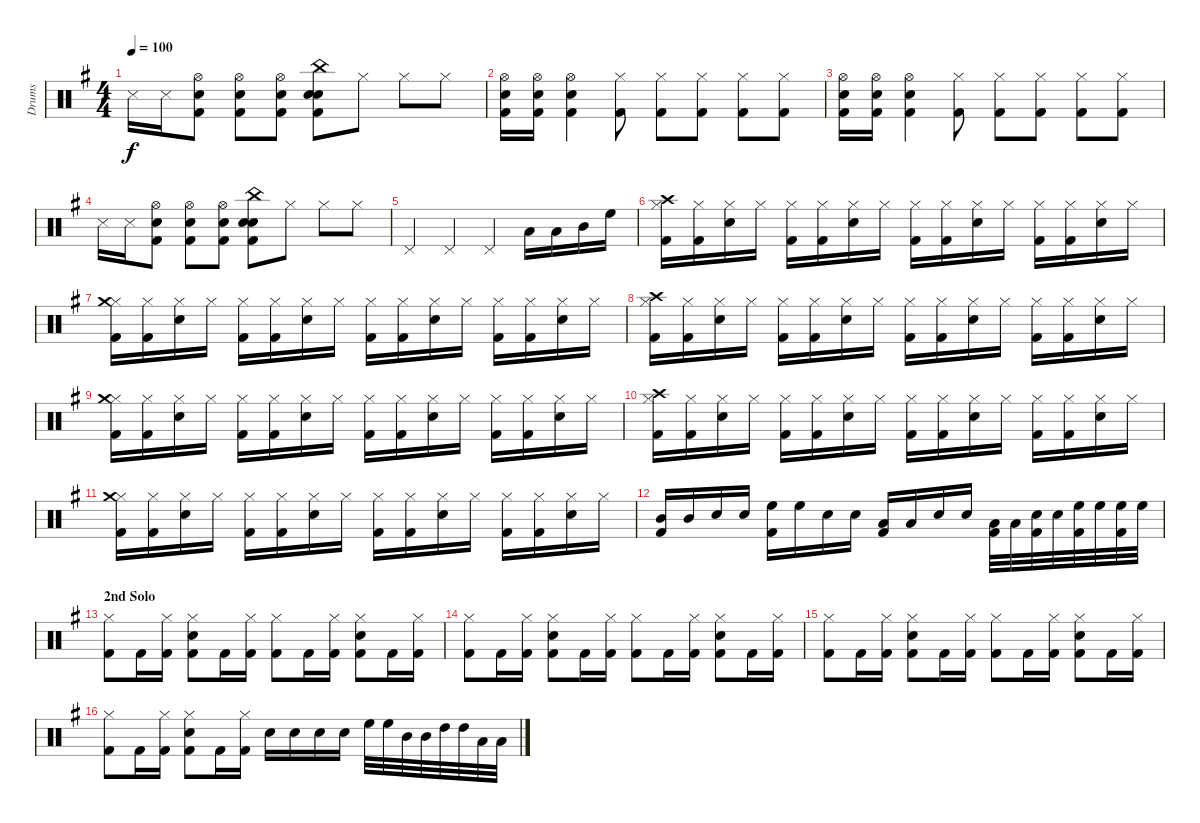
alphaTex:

\track ("Drums" "Drums") {instrument percussion}
\staff {score}
\articulation defaults
\ts (4 4)
\tempo 100
\clef neutral
\ks eminor "Snare (side stick) 3".16{dy f} "Snare (side stick) 3".16
("Hi-Hat (open)" "Snare (hit) 2" "Kick (hit) 2").8 ("Hi-Hat (open)" "Snare (hit) 2" "Kick (hit) 2").8 ("Hi-Hat (open)" "Snare (hit) 2" "Kick (hit) 2").8 ("China (hit)" "Hand Clap (hit)" "Snare (hit) 2" "Kick (hit) 2").8 "Hi-Hat (closed)".8 "Hi-Hat (closed)".8 "Hi-Hat (closed)".8 |
("Snare (hit) 2" "Hi-Hat (open)" "Kick (hit) 2").16 ("Snare (hit) 2" "Hi-Hat (open)" "Kick (hit) 2").16 ("Snare (hit) 2" "Hi-Hat (open)" "Kick (hit) 2").4 ("Hi-Hat (closed)" "Kick (hit) 2").8 ("Hi-Hat (closed)" "Kick (hit) 2").8 ("Hi-Hat (closed)" "Kick (hit) 2").8 ("Hi-Hat (closed)" "Kick (hit) 2").8 ("Hi-Hat (closed)" "Kick (hit) 2").8 |
("Snare (hit) 2" "Hi-Hat (open)" "Kick (hit) 2").16 ("Snare (hit) 2" "Hi-Hat (open)" "Kick (hit) 2").16 ("Snare (hit) 2" "Hi-Hat (open)" "Kick (hit) 2").4 ("Hi-Hat (closed)" "Kick (hit) 2").8 ("Hi-Hat (closed)" "Kick (hit) 2").8 ("Hi-Hat (closed)" "Kick (hit) 2").8 ("Hi-Hat (closed)" "Kick (hit) 2").8 ("Hi-Hat (closed)" "Kick (hit) 2").8 |
"Snare (side stick) 3".16 "Snare (side stick) 3".16 ("Hi-Hat (open)" "Snare (hit) 2" "Kick (hit) 2").8 ("Hi-Hat (open)" "Snare (hit) 2" "Kick (hit) 2").8 ("Hi-Hat (open)" "Snare (hit) 2" "Kick (hit) 2").8 ("China (hit)" "Hand Clap (hit)" "Snare (hit) 2" "Kick (hit) 2").8 "Hi-Hat (closed)".8 "Hi-Hat (closed)".8 "Hi-Hat (closed)".8 |
"Pedal Hi-Hat (hit)".4 "Pedal Hi-Hat (hit)".4 "Pedal Hi-Hat (hit)".4 "Low Floor Tom (hit)".16 "Low Tom (hit)".16 "Mid Tom (hit)".16 "High Floor Tom (hit)".16 |
("Hi-Hat (closed)" "Crash high (hit)" "Kick (hit) 2").16 ("Hi-Hat (closed)" "Kick (hit) 2").16 ("Hi-Hat (closed)" "Snare (hit) 2").16 "Hi-Hat (closed)".16 ("Hi-Hat (closed)" "Kick (hit) 2").16 ("Hi-Hat (closed)" "Kick (hit) 2").16 ("Hi-Hat (closed)" "Snare (hit) 2").16 "Hi-Hat (closed)".16 ("Hi-Hat (closed)" "Kick (hit) 2").16 ("Hi-Hat (closed)" "Kick (hit) 2").16 ("Hi-Hat (closed)" "Snare (hit) 2").16 "Hi-Hat (closed)".16 ("Hi-Hat (closed)" "Kick (hit) 2").16 ("Hi-Hat (closed)" "Kick (hit) 2").16 ("Hi-Hat (closed)" "Snare (hit) 2").16 "Hi-Hat (closed)".16 |
("Hi-Hat (closed)" "Crash medium (hit)" "Kick (hit) 2").16 ("Hi-Hat (closed)" "Kick (hit) 2").16 ("Hi-Hat (closed)" "Snare (hit) 2").16 "Hi-Hat (closed)".16 ("Hi-Hat (closed)" "Kick (hit) 2").16 ("Hi-Hat (closed)" "Kick (hit) 2").16 ("Hi-Hat (closed)" "Snare (hit) 2").16 "Hi-Hat (closed)".16 ("Hi-Hat (closed)" "Kick (hit) 2").16 ("Hi-Hat (closed)" "Kick (hit) 2").16 ("Hi-Hat (closed)" "Snare (hit) 2").16 "Hi-Hat (closed)".16 ("Hi-Hat (closed)" "Kick (hit) 2").16 ("Hi-Hat (closed)" "Kick (hit) 2").16 ("Hi-Hat (closed)" "Snare (hit) 2").16 "Hi-Hat (closed)".16 |
("Hi-Hat (closed)" "Crash high (hit)" "Kick (hit) 2").16 ("Hi-Hat (closed)" "Kick (hit) 2").16 ("Hi-Hat (closed)" "Snare (hit) 2").16 "Hi-Hat (closed)".16 ("Hi-Hat (closed)" "Kick (hit) 2").16 ("Hi-Hat (closed)" "Kick (hit) 2").16 ("Hi-Hat (closed)" "Snare (hit) 2").16 "Hi-Hat (closed)".16 ("Hi-Hat (closed)" "Kick (hit) 2").16 ("Hi-Hat (closed)" "Kick (hit) 2").16 ("Hi-Hat (closed)" "Snare (hit) 2").16 "Hi-Hat (closed)".16 ("Hi-Hat (closed)" "Kick (hit) 2").16 ("Hi-Hat (closed)" "Kick (hit) 2").16 ("Hi-Hat (closed)" "Snare (hit) 2").16 "Hi-Hat (closed)".16 |
("Hi-Hat (closed)" "Crash medium (hit)" "Kick (hit) 2").16 ("Hi-Hat (closed)" "Kick (hit) 2").16 ("Hi-Hat (closed)" "Snare (hit) 2").16 "Hi-Hat (closed)".16 ("Hi-Hat (closed)" "Kick (hit) 2").16 ("Hi-Hat (closed)" "Kick (hit) 2").16 ("Hi-Hat (closed)" "Snare (hit) 2").16 "Hi-Hat (closed)".16 ("Hi-Hat (closed)" "Kick (hit) 2").16 ("Hi-Hat (closed)" "Kick (hit) 2").16 ("Hi-Hat (closed)" "Snare (hit) 2").16 "Hi-Hat (closed)".16 ("Hi-Hat (closed)" "Kick (hit) 2").16 ("Hi-Hat (closed)" "Kick (hit) 2").16 ("Hi-Hat (closed)" "Snare (hit) 2").16 "Hi-Hat (closed)".16 |
("Hi-Hat (closed)" "Crash high (hit)" "Kick (hit) 2").16 ("Hi-Hat (closed)" "Kick (hit) 2").16 ("Hi-Hat (closed)" "Snare (hit) 2").16 "Hi-Hat (closed)".16 ("Hi-Hat (closed)" "Kick (hit) 2").16 ("Hi-Hat (closed)" "Kick (hit) 2").16 ("Hi-Hat (closed)" "Snare (hit) 2").16 "Hi-Hat (closed)".16 ("Hi-Hat (closed)" "Kick (hit) 2").16 ("Hi-Hat (closed)" "Kick (hit) 2").16 ("Hi-Hat (closed)" "Snare (hit) 2").16 "Hi-Hat (closed)".16 ("Hi-Hat (closed)" "Kick (hit) 2").16 ("Hi-Hat (closed)" "Kick (hit) 2").16 ("Hi-Hat (closed)" "Snare (hit) 2").16 "Hi-Hat (closed)".16 |
("Hi-Hat (closed)" "Crash medium (hit)" "Kick (hit) 2").16 ("Hi-Hat (closed)" "Kick (hit) 2").16 ("Hi-Hat (closed)" "Snare (hit) 2").16 "Hi-Hat (closed)".16 ("Hi-Hat (closed)" "Kick (hit) 2").16 ("Hi-Hat (closed)" "Kick (hit) 2").16 ("Hi-Hat (closed)" "Snare (hit) 2").16 "Hi-Hat (closed)".16 ("Hi-Hat (closed)" "Kick (hit) 2").16 ("Hi-Hat (closed)" "Kick (hit) 2").16 ("Hi-Hat (closed)" "Snare (hit) 2").16 "Hi-Hat (closed)".16 ("Hi-Hat (closed)" "Kick (hit) 2").16 ("Hi-Hat (closed)" "Kick (hit) 2").16 ("Hi-Hat (closed)" "Snare (hit) 2").16 "Hi-Hat (closed)".16 |
("Mid Tom (hit)" "Kick (hit) 2").16 "Mid Tom (hit)".16 "Snare (hit) 2".16 "Snare (hit) 2".16 ("High Floor Tom (hit)" "Kick (hit) 2").16 "High Floor Tom (hit)".16 "Snare (hit) 2".16 "Snare (hit) 2".16 ("Low Tom (hit)" "Kick (hit) 2").16 "Low Tom (hit)".16 "Snare (hit) 2".16 "Snare (hit) 2".16 ("Low Floor Tom (hit)" "Kick (hit) 2").32 "Low Floor Tom (hit)".32 ("Snare (hit) 2" "Kick (hit) 2").32 "Snare (hit) 2".32 ("High Floor Tom (hit)" "Kick (hit) 2").32 "High Floor Tom (hit)".32 ("High Floor Tom (hit)" "Kick (hit) 2").32 "High Floor Tom (hit)".32 |
\section ("" "2nd Solo")
("Hi-Hat (closed)" "Kick (hit) 2").8 "Kick (hit) 2".16 ("Hi-Hat (closed)" "Kick (hit) 2").16 ("Hi-Hat (closed)" "Kick (hit) 2" "Snare (hit) 2").8 "Kick (hit) 2".16 ("Hi-Hat (closed)" "Kick (hit) 2").16 ("Hi-Hat (closed)" "Kick (hit) 2").8 "Kick (hit) 2".16 ("Hi-Hat (closed)" "Kick (hit) 2").16 ("Hi-Hat (closed)" "Kick (hit) 2" "Snare (hit) 2").8 "Kick (hit) 2".16 ("Hi-Hat (closed)" "Kick (hit) 2").16 |
("Hi-Hat (closed)" "Kick (hit) 2").8 "Kick (hit) 2".16 ("Hi-Hat (closed)" "Kick (hit) 2").16 ("Hi-Hat (closed)" "Kick (hit) 2" "Snare (hit) 2").8 "Kick (hit) 2".16 ("Hi-Hat (closed)" "Kick (hit) 2").16 ("Hi-Hat (closed)" "Kick (hit) 2").8 "Kick (hit) 2".16 ("Hi-Hat (closed)" "Kick (hit) 2").16 ("Hi-Hat (closed)" "Kick (hit) 2" "Snare (hit) 2").8 "Kick (hit) 2".16 ("Hi-Hat (closed)" "Kick (hit) 2").16 |
("Hi-Hat (closed)" "Kick (hit) 2").8 "Kick (hit) 2".16 ("Hi-Hat (closed)" "Kick (hit) 2").16 ("Hi-Hat (closed)" "Kick (hit) 2" "Snare (hit) 2").8 "Kick (hit) 2".16 ("Hi-Hat (closed)" "Kick (hit) 2").16 ("Hi-Hat (closed)" "Kick (hit) 2").8 "Kick (hit) 2".16 ("Hi-Hat (closed)" "Kick (hit) 2").16 ("Hi-Hat (closed)" "Kick (hit) 2" "Snare (hit) 2").8 "Kick (hit) 2".16 ("Hi-Hat (closed)" "Kick (hit) 2").16 |
("Hi-Hat (closed)" "Kick (hit) 2").8 "Kick (hit) 2".16 ("Hi-Hat (closed)" "Kick (hit) 2").16 ("Hi-Hat (closed)" "Kick (hit) 2" "Snare (hit) 2").8 "Kick (hit) 2".16 ("Hi-Hat (closed)" "Kick (hit) 2").16 "Snare (hit) 2".16 "Snare (hit) 2".16 "Snare (hit) 2".16 "Snare (hit) 2".16 "High Floor Tom (hit)".32 "High Floor Tom (hit)".32 "Mid Tom (hit)".32 "Mid Tom (hit)".32 "High Tom (hit)".32 "High Tom (hit)".32 "Low Floor Tom (hit)".32 "Low Floor Tom (hit)".32
